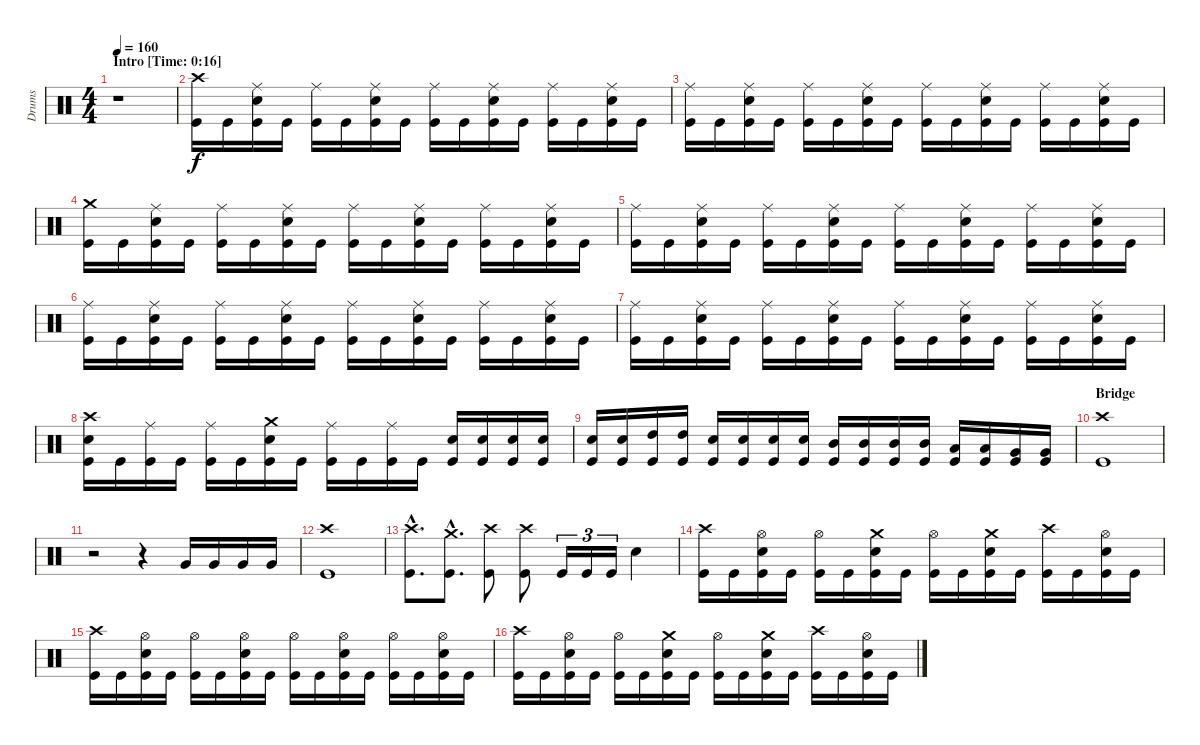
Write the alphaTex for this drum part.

\track ("Drums" "Drums") {instrument percussion}
\staff {score}
\articulation defaults
\ts (4 4)
\section ("" "Intro [Time: 0:16]")
\tempo 160
\clef neutral
\ks c
r.1{dy f} |
("Crash high (hit)" "Kick (hit)").16 "Kick (hit)".16 ("Ride (middle)" "Electric Snare (hit)" "Kick (hit)").16 "Kick (hit)".16 ("Ride (middle)" "Kick (hit)").16 "Kick (hit)".16 ("Ride (middle)" "Electric Snare (hit)" "Kick (hit)").16 "Kick (hit)".16 ("Ride (middle)" "Kick (hit)").16 "Kick (hit)".16 ("Ride (middle)" "Electric Snare (hit)" "Kick (hit)").16 "Kick (hit)".16 ("Ride (middle)" "Kick (hit)").16 "Kick (hit)".16 ("Ride (middle)" "Electric Snare (hit)" "Kick (hit)").16 "Kick (hit)".16 |
("Ride (middle)" "Kick (hit)").16 "Kick (hit)".16 ("Ride (middle)" "Electric Snare (hit)" "Kick (hit)").16 "Kick (hit)".16 ("Ride (middle)" "Kick (hit)").16 "Kick (hit)".16 ("Ride (middle)" "Electric Snare (hit)" "Kick (hit)").16 "Kick (hit)".16 ("Ride (middle)" "Kick (hit)").16 "Kick (hit)".16 ("Ride (middle)" "Electric Snare (hit)" "Kick (hit)").16 "Kick (hit)".16 ("Ride (middle)" "Kick (hit)").16 "Kick (hit)".16 ("Ride (middle)" "Electric Snare (hit)" "Kick (hit)").16 "Kick (hit)".16 |
("Crash medium (hit)" "Kick (hit)").16 "Kick (hit)".16 ("Ride (middle)" "Electric Snare (hit)" "Kick (hit)").16 "Kick (hit)".16 ("Ride (middle)" "Kick (hit)").16 "Kick (hit)".16 ("Ride (middle)" "Electric Snare (hit)" "Kick (hit)").16 "Kick (hit)".16 ("Ride (middle)" "Kick (hit)").16 "Kick (hit)".16 ("Ride (middle)" "Electric Snare (hit)" "Kick (hit)").16 "Kick (hit)".16 ("Ride (middle)" "Kick (hit)").16 "Kick (hit)".16 ("Ride (middle)" "Electric Snare (hit)" "Kick (hit)").16 "Kick (hit)".16 |
("Ride (middle)" "Kick (hit)").16 "Kick (hit)".16 ("Ride (middle)" "Electric Snare (hit)" "Kick (hit)").16 "Kick (hit)".16 ("Ride (middle)" "Kick (hit)").16 "Kick (hit)".16 ("Ride (middle)" "Electric Snare (hit)" "Kick (hit)").16 "Kick (hit)".16 ("Ride (middle)" "Kick (hit)").16 "Kick (hit)".16 ("Ride (middle)" "Electric Snare (hit)" "Kick (hit)").16 "Kick (hit)".16 ("Ride (middle)" "Kick (hit)").16 "Kick (hit)".16 ("Ride (middle)" "Electric Snare (hit)" "Kick (hit)").16 "Kick (hit)".16 |
("Ride (middle)" "Kick (hit)").16 "Kick (hit)".16 ("Ride (middle)" "Electric Snare (hit)" "Kick (hit)").16 "Kick (hit)".16 ("Ride (middle)" "Kick (hit)").16 "Kick (hit)".16 ("Ride (middle)" "Electric Snare (hit)" "Kick (hit)").16 "Kick (hit)".16 ("Ride (middle)" "Kick (hit)").16 "Kick (hit)".16 ("Ride (middle)" "Electric Snare (hit)" "Kick (hit)").16 "Kick (hit)".16 ("Ride (middle)" "Kick (hit)").16 "Kick (hit)".16 ("Ride (middle)" "Electric Snare (hit)" "Kick (hit)").16 "Kick (hit)".16 |
("Ride (middle)" "Kick (hit)").16 "Kick (hit)".16 ("Ride (middle)" "Electric Snare (hit)" "Kick (hit)").16 "Kick (hit)".16 ("Ride (middle)" "Kick (hit)").16 "Kick (hit)".16 ("Ride (middle)" "Electric Snare (hit)" "Kick (hit)").16 "Kick (hit)".16 ("Ride (middle)" "Kick (hit)").16 "Kick (hit)".16 ("Ride (middle)" "Electric Snare (hit)" "Kick (hit)").16 "Kick (hit)".16 ("Ride (middle)" "Kick (hit)").16 "Kick (hit)".16 ("Ride (middle)" "Electric Snare (hit)" "Kick (hit)").16 "Kick (hit)".16 |
("Crash high (hit)" "Electric Snare (hit)" "Kick (hit)").16 "Kick (hit)".16 ("Ride (middle)" "Kick (hit)").16 "Kick (hit)".16 ("Ride (middle)" "Kick (hit)").16 "Kick (hit)".16 ("Crash medium (hit)" "Electric Snare (hit)" "Kick (hit)").16 "Kick (hit)".16 ("Ride (middle)" "Kick (hit)").16 "Kick (hit)".16 ("Ride (middle)" "Kick (hit)").16 "Kick (hit)".16 ("Electric Snare (hit)" "Kick (hit)").16 ("Electric Snare (hit)" "Kick (hit)").16 ("Electric Snare (hit)" "Kick (hit)").16 ("Electric Snare (hit)" "Kick (hit)").16 |
("Electric Snare (hit)" "Kick (hit)").16 ("Electric Snare (hit)" "Kick (hit)").16 ("High Tom (hit)" "Kick (hit)").16 ("High Tom (hit)" "Kick (hit)").16 ("Electric Snare (hit)" "Kick (hit)").16 ("Electric Snare (hit)" "Kick (hit)").16 ("Electric Snare (hit)" "Kick (hit)").16 ("Electric Snare (hit)" "Kick (hit)").16 ("Mid Tom (hit)" "Kick (hit)").16 ("Mid Tom (hit)" "Kick (hit)").16 ("Mid Tom (hit)" "Kick (hit)").16 ("Mid Tom (hit)" "Kick (hit)").16 ("Low Tom (hit)" "Kick (hit)").16 ("Low Tom (hit)" "Kick (hit)").16 ("Very Low Tom (hit)" "Kick (hit)").16 ("Very Low Tom (hit)" "Kick (hit)").16 |
\section ("" "Bridge")
("Crash high (hit)" "Kick (hit)").1 |
r.2 r.4 "Very Low Tom (hit)".16 "Very Low Tom (hit)".16 "Very Low Tom (hit)".16 "Very Low Tom (hit)".16 |
("Crash high (hit)" "Kick (hit)").1 |
("Crash high (hit)"{hac} "Kick (hit)"{hac}).8{d} ("Crash medium (hit)"{hac} "Kick (hit)"{hac}).8{d} ("Crash high (hit)" "Kick (hit)").8 ("Crash high (hit)" "Kick (hit)").8 "Kick (hit)".16{tu (3 2)} "Kick (hit)".16{tu (3 2)} "Kick (hit)".16{tu (3 2)} "Electric Snare (hit)".4 |
("Crash high (hit)" "Kick (hit)").16 "Kick (hit)".16 ("Hi-Hat (open)" "Electric Snare (hit)" "Kick (hit)").16 "Kick (hit)".16 ("Hi-Hat (open)" "Kick (hit)").16 "Kick (hit)".16 ("Crash medium (hit)" "Electric Snare (hit)" "Kick (hit)").16 "Kick (hit)".16 ("Hi-Hat (open)" "Kick (hit)").16 "Kick (hit)".16 ("Crash medium (hit)" "Electric Snare (hit)" "Kick (hit)").16 "Kick (hit)".16 ("Crash high (hit)" "Kick (hit)").16 "Kick (hit)".16 ("Hi-Hat (open)" "Electric Snare (hit)" "Kick (hit)").16 "Kick (hit)".16 |
("Crash high (hit)" "Kick (hit)").16 "Kick (hit)".16 ("Hi-Hat (open)" "Electric Snare (hit)" "Kick (hit)").16 "Kick (hit)".16 ("Hi-Hat (open)" "Kick (hit)").16 "Kick (hit)".16 ("Hi-Hat (open)" "Electric Snare (hit)" "Kick (hit)").16 "Kick (hit)".16 ("Hi-Hat (open)" "Kick (hit)").16 "Kick (hit)".16 ("Hi-Hat (open)" "Electric Snare (hit)" "Kick (hit)").16 "Kick (hit)".16 ("Hi-Hat (open)" "Kick (hit)").16 "Kick (hit)".16 ("Hi-Hat (open)" "Electric Snare (hit)" "Kick (hit)").16 "Kick (hit)".16 |
("Crash high (hit)" "Kick (hit)").16 "Kick (hit)".16 ("Hi-Hat (open)" "Electric Snare (hit)" "Kick (hit)").16 "Kick (hit)".16 ("Hi-Hat (open)" "Kick (hit)").16 "Kick (hit)".16 ("Crash medium (hit)" "Electric Snare (hit)" "Kick (hit)").16 "Kick (hit)".16 ("Hi-Hat (open)" "Kick (hit)").16 "Kick (hit)".16 ("Crash medium (hit)" "Electric Snare (hit)" "Kick (hit)").16 "Kick (hit)".16 ("Crash high (hit)" "Kick (hit)").16 "Kick (hit)".16 ("Hi-Hat (open)" "Electric Snare (hit)" "Kick (hit)").16 "Kick (hit)".16
